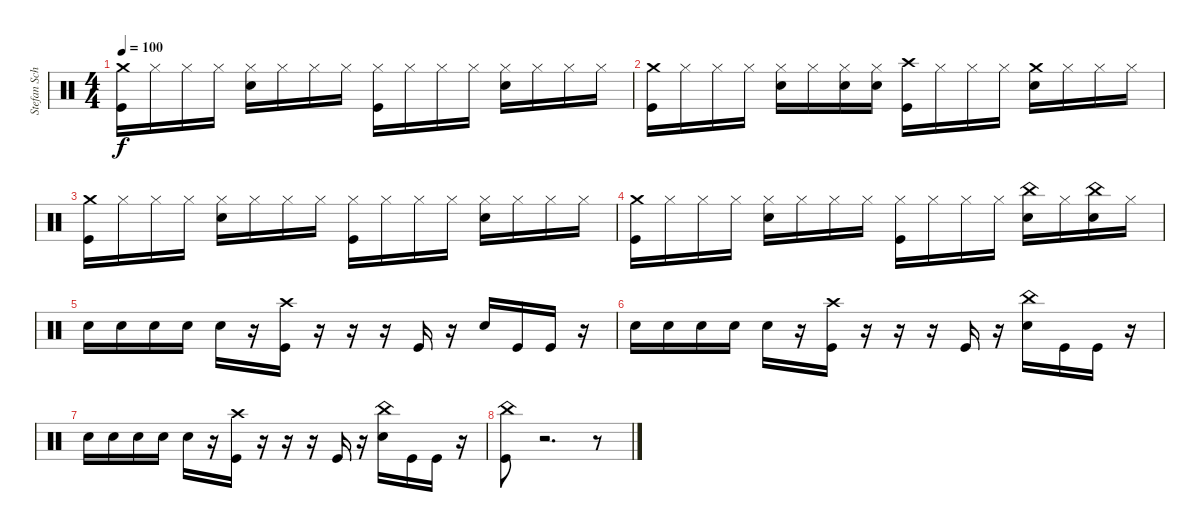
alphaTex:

\track ("Stefan Schwarzmann" "Stefan Sch") {instrument percussion}
\staff {score}
\articulation defaults
\ts (4 4)
\tempo 100
\clef neutral
\ks c
("Kick (hit)" "Crash medium (hit)").16{dy f} "Hi-Hat (closed)".16 "Hi-Hat (closed)".16 "Hi-Hat (closed)".16 ("Snare (hit) 2" "Hi-Hat (closed)").16 "Hi-Hat (closed)".16 "Hi-Hat (closed)".16 "Hi-Hat (closed)".16 ("Kick (hit)" "Hi-Hat (closed)").16 "Hi-Hat (closed)".16 "Hi-Hat (closed)".16 "Hi-Hat (closed)".16 ("Snare (hit) 2" "Hi-Hat (closed)").16 "Hi-Hat (closed)".16 "Hi-Hat (closed)".16 "Hi-Hat (closed)".16 |
("Kick (hit)" "Crash medium (hit)").16 "Hi-Hat (closed)".16 "Hi-Hat (closed)".16 "Hi-Hat (closed)".16 ("Snare (hit) 2" "Hi-Hat (closed)").16 "Hi-Hat (closed)".16 ("Hi-Hat (closed)" "Snare (hit) 2").16 ("Hi-Hat (closed)" "Snare (hit) 2").16 ("Kick (hit)" "Crash high (hit)").16 "Hi-Hat (closed)".16 "Hi-Hat (closed)".16 "Hi-Hat (closed)".16 ("Snare (hit) 2" "Crash medium (hit)").16 "Hi-Hat (closed)".16 "Hi-Hat (closed)".16 "Hi-Hat (closed)".16 |
("Kick (hit)" "Crash medium (hit)").16 "Hi-Hat (closed)".16 "Hi-Hat (closed)".16 "Hi-Hat (closed)".16 ("Snare (hit) 2" "Hi-Hat (closed)").16 "Hi-Hat (closed)".16 "Hi-Hat (closed)".16 "Hi-Hat (closed)".16 ("Kick (hit)" "Hi-Hat (closed)").16 "Hi-Hat (closed)".16 "Hi-Hat (closed)".16 "Hi-Hat (closed)".16 ("Snare (hit) 2" "Hi-Hat (closed)").16 "Hi-Hat (closed)".16 "Hi-Hat (closed)".16 "Hi-Hat (closed)".16 |
("Kick (hit)" "Crash medium (hit)").16 "Hi-Hat (closed)".16 "Hi-Hat (closed)".16 "Hi-Hat (closed)".16 ("Snare (hit) 2" "Hi-Hat (closed)").16 "Hi-Hat (closed)".16 "Hi-Hat (closed)".16 "Hi-Hat (closed)".16 ("Kick (hit)" "Hi-Hat (closed)").16 "Hi-Hat (closed)".16 "Hi-Hat (closed)".16 "Hi-Hat (closed)".16 ("Snare (hit) 2" "China (hit)").16 "Hi-Hat (closed)".16 ("Snare (hit) 2" "China (hit)").16 "Hi-Hat (closed)".16 |
"Snare (hit) 2".16 "Snare (hit) 2".16 "Snare (hit) 2".16 "Snare (hit) 2".16 "Snare (hit) 2".16 r.16 ("Kick (hit)" "Crash high (hit)").16 r.16 r.16 r.16 "Kick (hit)".16 r.16 "Snare (hit) 2".16 "Kick (hit)".16 "Kick (hit)".16 r.16 |
"Snare (hit) 2".16 "Snare (hit) 2".16 "Snare (hit) 2".16 "Snare (hit) 2".16 "Snare (hit) 2".16 r.16 ("Kick (hit)" "Crash high (hit)").16 r.16 r.16 r.16 "Kick (hit)".16 r.16 ("Snare (hit) 2" "China (hit)").16 "Kick (hit)".16 "Kick (hit)".16 r.16 |
"Snare (hit) 2".16 "Snare (hit) 2".16 "Snare (hit) 2".16 "Snare (hit) 2".16 "Snare (hit) 2".16 r.16 ("Kick (hit)" "Crash high (hit)").16 r.16 r.16 r.16 "Kick (hit)".16 r.16 ("Snare (hit) 2" "China (hit)").16 "Kick (hit)".16 "Kick (hit)".16 r.16 |
("Kick (hit)" "China (hit)").8 r.2{d} r.8
